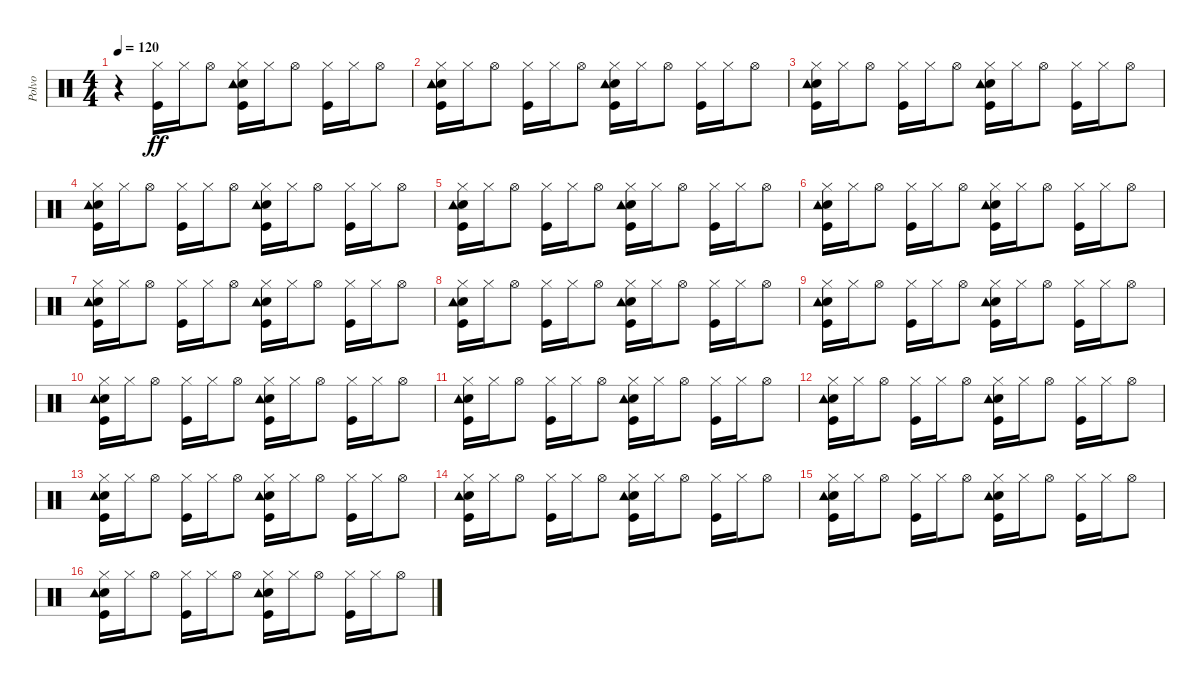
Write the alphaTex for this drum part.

\track ("Polvo" "Polvo") {instrument percussion}
\staff {score}
\articulation defaults
\ts (4 4)
\tempo 120
\clef neutral
\ks c
r.4{dy ff} ("Hi-Hat (closed)" "Kick (hit)").16 "Hi-Hat (closed)".16 "Hi-Hat (open)".8 ("Hi-Hat (closed)" "Electric Snare (hit)" "Kick (hit)" "Tambourine (hit)").16 "Hi-Hat (closed)".16 "Hi-Hat (open)".8 ("Hi-Hat (closed)" "Kick (hit)").16 "Hi-Hat (closed)".16 "Hi-Hat (open)".8 |
("Hi-Hat (closed)" "Electric Snare (hit)" "Kick (hit)" "Tambourine (hit)").16 "Hi-Hat (closed)".16 "Hi-Hat (open)".8 ("Hi-Hat (closed)" "Kick (hit)").16 "Hi-Hat (closed)".16 "Hi-Hat (open)".8 ("Hi-Hat (closed)" "Electric Snare (hit)" "Kick (hit)" "Tambourine (hit)").16 "Hi-Hat (closed)".16 "Hi-Hat (open)".8 ("Hi-Hat (closed)" "Kick (hit)").16 "Hi-Hat (closed)".16 "Hi-Hat (open)".8 |
("Hi-Hat (closed)" "Electric Snare (hit)" "Kick (hit)" "Tambourine (hit)").16 "Hi-Hat (closed)".16 "Hi-Hat (open)".8 ("Hi-Hat (closed)" "Kick (hit)").16 "Hi-Hat (closed)".16 "Hi-Hat (open)".8 ("Hi-Hat (closed)" "Electric Snare (hit)" "Kick (hit)" "Tambourine (hit)").16 "Hi-Hat (closed)".16 "Hi-Hat (open)".8 ("Hi-Hat (closed)" "Kick (hit)").16 "Hi-Hat (closed)".16 "Hi-Hat (open)".8 |
("Hi-Hat (closed)" "Electric Snare (hit)" "Kick (hit)" "Tambourine (hit)").16 "Hi-Hat (closed)".16 "Hi-Hat (open)".8 ("Hi-Hat (closed)" "Kick (hit)").16 "Hi-Hat (closed)".16 "Hi-Hat (open)".8 ("Hi-Hat (closed)" "Electric Snare (hit)" "Kick (hit)" "Tambourine (hit)").16 "Hi-Hat (closed)".16 "Hi-Hat (open)".8 ("Hi-Hat (closed)" "Kick (hit)").16 "Hi-Hat (closed)".16 "Hi-Hat (open)".8 |
("Hi-Hat (closed)" "Electric Snare (hit)" "Kick (hit)" "Tambourine (hit)").16 "Hi-Hat (closed)".16 "Hi-Hat (open)".8 ("Hi-Hat (closed)" "Kick (hit)").16 "Hi-Hat (closed)".16 "Hi-Hat (open)".8 ("Hi-Hat (closed)" "Electric Snare (hit)" "Kick (hit)" "Tambourine (hit)").16 "Hi-Hat (closed)".16 "Hi-Hat (open)".8 ("Hi-Hat (closed)" "Kick (hit)").16 "Hi-Hat (closed)".16 "Hi-Hat (open)".8 |
("Hi-Hat (closed)" "Electric Snare (hit)" "Kick (hit)" "Tambourine (hit)").16 "Hi-Hat (closed)".16 "Hi-Hat (open)".8 ("Hi-Hat (closed)" "Kick (hit)").16 "Hi-Hat (closed)".16 "Hi-Hat (open)".8 ("Hi-Hat (closed)" "Electric Snare (hit)" "Kick (hit)" "Tambourine (hit)").16 "Hi-Hat (closed)".16 "Hi-Hat (open)".8 ("Hi-Hat (closed)" "Kick (hit)").16 "Hi-Hat (closed)".16 "Hi-Hat (open)".8 |
("Hi-Hat (closed)" "Electric Snare (hit)" "Kick (hit)" "Tambourine (hit)").16 "Hi-Hat (closed)".16 "Hi-Hat (open)".8 ("Hi-Hat (closed)" "Kick (hit)").16 "Hi-Hat (closed)".16 "Hi-Hat (open)".8 ("Hi-Hat (closed)" "Electric Snare (hit)" "Kick (hit)" "Tambourine (hit)").16 "Hi-Hat (closed)".16 "Hi-Hat (open)".8 ("Hi-Hat (closed)" "Kick (hit)").16 "Hi-Hat (closed)".16 "Hi-Hat (open)".8 |
("Hi-Hat (closed)" "Electric Snare (hit)" "Kick (hit)" "Tambourine (hit)").16 "Hi-Hat (closed)".16 "Hi-Hat (open)".8 ("Hi-Hat (closed)" "Kick (hit)").16 "Hi-Hat (closed)".16 "Hi-Hat (open)".8 ("Hi-Hat (closed)" "Electric Snare (hit)" "Kick (hit)" "Tambourine (hit)").16 "Hi-Hat (closed)".16 "Hi-Hat (open)".8 ("Hi-Hat (closed)" "Kick (hit)").16 "Hi-Hat (closed)".16 "Hi-Hat (open)".8 |
("Hi-Hat (closed)" "Electric Snare (hit)" "Kick (hit)" "Tambourine (hit)").16 "Hi-Hat (closed)".16 "Hi-Hat (open)".8 ("Hi-Hat (closed)" "Kick (hit)").16 "Hi-Hat (closed)".16 "Hi-Hat (open)".8 ("Hi-Hat (closed)" "Electric Snare (hit)" "Kick (hit)" "Tambourine (hit)").16 "Hi-Hat (closed)".16 "Hi-Hat (open)".8 ("Hi-Hat (closed)" "Kick (hit)").16 "Hi-Hat (closed)".16 "Hi-Hat (open)".8 |
("Hi-Hat (closed)" "Electric Snare (hit)" "Kick (hit)" "Tambourine (hit)").16 "Hi-Hat (closed)".16 "Hi-Hat (open)".8 ("Hi-Hat (closed)" "Kick (hit)").16 "Hi-Hat (closed)".16 "Hi-Hat (open)".8 ("Hi-Hat (closed)" "Electric Snare (hit)" "Kick (hit)" "Tambourine (hit)").16 "Hi-Hat (closed)".16 "Hi-Hat (open)".8 ("Hi-Hat (closed)" "Kick (hit)").16 "Hi-Hat (closed)".16 "Hi-Hat (open)".8 |
("Hi-Hat (closed)" "Electric Snare (hit)" "Kick (hit)" "Tambourine (hit)").16 "Hi-Hat (closed)".16 "Hi-Hat (open)".8 ("Hi-Hat (closed)" "Kick (hit)").16 "Hi-Hat (closed)".16 "Hi-Hat (open)".8 ("Hi-Hat (closed)" "Electric Snare (hit)" "Kick (hit)" "Tambourine (hit)").16 "Hi-Hat (closed)".16 "Hi-Hat (open)".8 ("Hi-Hat (closed)" "Kick (hit)").16 "Hi-Hat (closed)".16 "Hi-Hat (open)".8 |
("Hi-Hat (closed)" "Electric Snare (hit)" "Kick (hit)" "Tambourine (hit)").16 "Hi-Hat (closed)".16 "Hi-Hat (open)".8 ("Hi-Hat (closed)" "Kick (hit)").16 "Hi-Hat (closed)".16 "Hi-Hat (open)".8 ("Hi-Hat (closed)" "Electric Snare (hit)" "Kick (hit)" "Tambourine (hit)").16 "Hi-Hat (closed)".16 "Hi-Hat (open)".8 ("Hi-Hat (closed)" "Kick (hit)").16 "Hi-Hat (closed)".16 "Hi-Hat (open)".8 |
("Hi-Hat (closed)" "Electric Snare (hit)" "Kick (hit)" "Tambourine (hit)").16 "Hi-Hat (closed)".16 "Hi-Hat (open)".8 ("Hi-Hat (closed)" "Kick (hit)").16 "Hi-Hat (closed)".16 "Hi-Hat (open)".8 ("Hi-Hat (closed)" "Electric Snare (hit)" "Kick (hit)" "Tambourine (hit)").16 "Hi-Hat (closed)".16 "Hi-Hat (open)".8 ("Hi-Hat (closed)" "Kick (hit)").16 "Hi-Hat (closed)".16 "Hi-Hat (open)".8 |
("Hi-Hat (closed)" "Electric Snare (hit)" "Kick (hit)" "Tambourine (hit)").16 "Hi-Hat (closed)".16 "Hi-Hat (open)".8 ("Hi-Hat (closed)" "Kick (hit)").16 "Hi-Hat (closed)".16 "Hi-Hat (open)".8 ("Hi-Hat (closed)" "Electric Snare (hit)" "Kick (hit)" "Tambourine (hit)").16 "Hi-Hat (closed)".16 "Hi-Hat (open)".8 ("Hi-Hat (closed)" "Kick (hit)").16 "Hi-Hat (closed)".16 "Hi-Hat (open)".8 |
("Hi-Hat (closed)" "Electric Snare (hit)" "Kick (hit)" "Tambourine (hit)").16 "Hi-Hat (closed)".16 "Hi-Hat (open)".8 ("Hi-Hat (closed)" "Kick (hit)").16 "Hi-Hat (closed)".16 "Hi-Hat (open)".8 ("Hi-Hat (closed)" "Electric Snare (hit)" "Kick (hit)" "Tambourine (hit)").16 "Hi-Hat (closed)".16 "Hi-Hat (open)".8 ("Hi-Hat (closed)" "Kick (hit)").16 "Hi-Hat (closed)".16 "Hi-Hat (open)".8 |
("Hi-Hat (closed)" "Electric Snare (hit)" "Kick (hit)" "Tambourine (hit)").16 "Hi-Hat (closed)".16 "Hi-Hat (open)".8 ("Hi-Hat (closed)" "Kick (hit)").16 "Hi-Hat (closed)".16 "Hi-Hat (open)".8 ("Hi-Hat (closed)" "Electric Snare (hit)" "Kick (hit)" "Tambourine (hit)").16 "Hi-Hat (closed)".16 "Hi-Hat (open)".8 ("Hi-Hat (closed)" "Kick (hit)").16 "Hi-Hat (closed)".16 "Hi-Hat (open)".8
